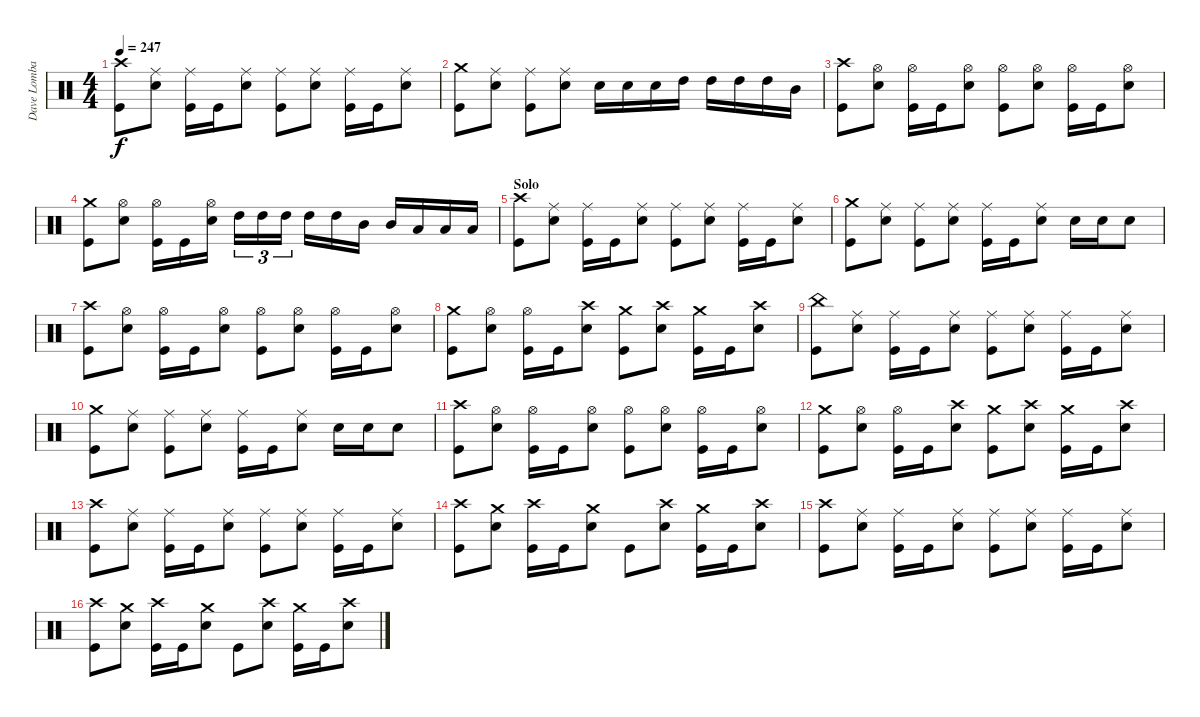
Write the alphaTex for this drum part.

\track ("Dave Lombardo" "Dave Lomba") {instrument percussion}
\staff {score}
\articulation defaults
\ts (4 4)
\tempo 247
\clef neutral
\ks c
("Crash high (hit)" "Kick (hit)").8{dy f} ("Ride (middle)" "Snare (hit) 2").8 ("Ride (middle)" "Kick (hit)").16 "Kick (hit)".16 ("Ride (middle)" "Snare (hit) 2").8 ("Ride (middle)" "Kick (hit)").8 ("Ride (middle)" "Snare (hit) 2").8 ("Ride (middle)" "Kick (hit)").16 "Kick (hit)".16 ("Ride (middle)" "Snare (hit) 2").8 |
("Crash medium (hit)" "Kick (hit)").8 ("Ride (middle)" "Snare (hit) 2").8 ("Ride (middle)" "Kick (hit)").8 ("Ride (middle)" "Snare (hit) 2").8 "Snare (hit) 2".16 "Snare (hit) 2".16 "Snare (hit) 2".16 "High Tom (hit)".16 "High Tom (hit)".16 "High Tom (hit)".16 "High Tom (hit)".16 "Mid Tom (hit)".16 |
("Crash high (hit)" "Kick (hit)").8 ("Hi-Hat (open)" "Snare (hit) 2").8 ("Hi-Hat (open)" "Kick (hit)").16 "Kick (hit)".16 ("Hi-Hat (open)" "Snare (hit) 2").8 ("Hi-Hat (open)" "Kick (hit)").8 ("Hi-Hat (open)" "Snare (hit) 2").8 ("Hi-Hat (open)" "Kick (hit)").16 "Kick (hit)".16 ("Hi-Hat (open)" "Snare (hit) 2").8 |
("Crash medium (hit)" "Kick (hit)").8 ("Hi-Hat (open)" "Snare (hit) 2").8 ("Hi-Hat (open)" "Kick (hit)").16 "Kick (hit)".16 ("Hi-Hat (open)" "Snare (hit) 2").16 "High Tom (hit)".16{tu (3 2)} "High Tom (hit)".16{tu (3 2)} "High Tom (hit)".16{tu (3 2)} "High Tom (hit)".16 "High Tom (hit)".16 "Mid Tom (hit)".16 "Mid Tom (hit)".16 "Low Tom (hit)".16 "Low Tom (hit)".16 "Low Tom (hit)".16 |
\section ("" "Solo")
("Crash high (hit)" "Kick (hit)").8 ("Ride (middle)" "Snare (hit) 2").8 ("Ride (middle)" "Kick (hit)").16 "Kick (hit)".16 ("Ride (middle)" "Snare (hit) 2").8 ("Ride (middle)" "Kick (hit)").8 ("Ride (middle)" "Snare (hit) 2").8 ("Ride (middle)" "Kick (hit)").16 "Kick (hit)".16 ("Ride (middle)" "Snare (hit) 2").8 |
("Crash medium (hit)" "Kick (hit)").8 ("Ride (middle)" "Snare (hit) 2").8 ("Ride (middle)" "Kick (hit)").8 ("Ride (middle)" "Snare (hit) 2").8 ("Ride (middle)" "Kick (hit)").16 "Kick (hit)".16 ("Ride (middle)" "Snare (hit) 2").8 "Snare (hit) 2".16 "Snare (hit) 2".16 "Snare (hit) 2".8 |
("Crash high (hit)" "Kick (hit)").8 ("Hi-Hat (open)" "Snare (hit) 2").8 ("Hi-Hat (open)" "Kick (hit)").16 "Kick (hit)".16 ("Hi-Hat (open)" "Snare (hit) 2").8 ("Hi-Hat (open)" "Kick (hit)").8 ("Hi-Hat (open)" "Snare (hit) 2").8 ("Hi-Hat (open)" "Kick (hit)").16 "Kick (hit)".16 ("Hi-Hat (open)" "Snare (hit) 2").8 |
("Crash medium (hit)" "Kick (hit)").8 ("Hi-Hat (open)" "Snare (hit) 2").8 ("Hi-Hat (open)" "Kick (hit)").16 "Kick (hit)".16 ("Crash high (hit)" "Snare (hit) 2").8 ("Crash medium (hit)" "Kick (hit)").8 ("Crash high (hit)" "Snare (hit) 2").8 ("Crash medium (hit)" "Kick (hit)").16 "Kick (hit)".16 ("Crash high (hit)" "Snare (hit) 2").8 |
("China (hit)" "Kick (hit)").8 ("Ride (middle)" "Snare (hit) 2").8 ("Ride (middle)" "Kick (hit)").16 "Kick (hit)".16 ("Ride (middle)" "Snare (hit) 2").8 ("Ride (middle)" "Kick (hit)").8 ("Ride (middle)" "Snare (hit) 2").8 ("Ride (middle)" "Kick (hit)").16 "Kick (hit)".16 ("Ride (middle)" "Snare (hit) 2").8 |
("Crash medium (hit)" "Kick (hit)").8 ("Ride (middle)" "Snare (hit) 2").8 ("Ride (middle)" "Kick (hit)").8 ("Ride (middle)" "Snare (hit) 2").8 ("Ride (middle)" "Kick (hit)").16 "Kick (hit)".16 ("Ride (middle)" "Snare (hit) 2").8 "Snare (hit) 2".16 "Snare (hit) 2".16 "Snare (hit) 2".8 |
("Crash high (hit)" "Kick (hit)").8 ("Hi-Hat (open)" "Snare (hit) 2").8 ("Hi-Hat (open)" "Kick (hit)").16 "Kick (hit)".16 ("Hi-Hat (open)" "Snare (hit) 2").8 ("Hi-Hat (open)" "Kick (hit)").8 ("Hi-Hat (open)" "Snare (hit) 2").8 ("Hi-Hat (open)" "Kick (hit)").16 "Kick (hit)".16 ("Hi-Hat (open)" "Snare (hit) 2").8 |
("Crash medium (hit)" "Kick (hit)").8 ("Hi-Hat (open)" "Snare (hit) 2").8 ("Hi-Hat (open)" "Kick (hit)").16 "Kick (hit)".16 ("Crash high (hit)" "Snare (hit) 2").8 ("Crash medium (hit)" "Kick (hit)").8 ("Crash high (hit)" "Snare (hit) 2").8 ("Crash medium (hit)" "Kick (hit)").16 "Kick (hit)".16 ("Crash high (hit)" "Snare (hit) 2").8 |
("Crash high (hit)" "Kick (hit)").8 ("Ride (middle)" "Snare (hit) 2").8 ("Ride (middle)" "Kick (hit)").16 "Kick (hit)".16 ("Ride (middle)" "Snare (hit) 2").8 ("Ride (middle)" "Kick (hit)").8 ("Ride (middle)" "Snare (hit) 2").8 ("Ride (middle)" "Kick (hit)").16 "Kick (hit)".16 ("Ride (middle)" "Snare (hit) 2").8 |
("Crash high (hit)" "Kick (hit)").8 ("Crash medium (hit)" "Snare (hit) 2").8 ("Crash high (hit)" "Kick (hit)").16 "Kick (hit)".16 ("Crash medium (hit)" "Snare (hit) 2").8 "Kick (hit)".8 ("Crash high (hit)" "Snare (hit) 2").8 ("Crash medium (hit)" "Kick (hit)").16 "Kick (hit)".16 ("Crash high (hit)" "Snare (hit) 2").8 |
("Crash high (hit)" "Kick (hit)").8 ("Ride (middle)" "Snare (hit) 2").8 ("Ride (middle)" "Kick (hit)").16 "Kick (hit)".16 ("Ride (middle)" "Snare (hit) 2").8 ("Ride (middle)" "Kick (hit)").8 ("Ride (middle)" "Snare (hit) 2").8 ("Ride (middle)" "Kick (hit)").16 "Kick (hit)".16 ("Ride (middle)" "Snare (hit) 2").8 |
("Crash high (hit)" "Kick (hit)").8 ("Crash medium (hit)" "Snare (hit) 2").8 ("Crash high (hit)" "Kick (hit)").16 "Kick (hit)".16 ("Crash medium (hit)" "Snare (hit) 2").8 "Kick (hit)".8 ("Crash high (hit)" "Snare (hit) 2").8 ("Crash medium (hit)" "Kick (hit)").16 "Kick (hit)".16 ("Crash high (hit)" "Snare (hit) 2").8
